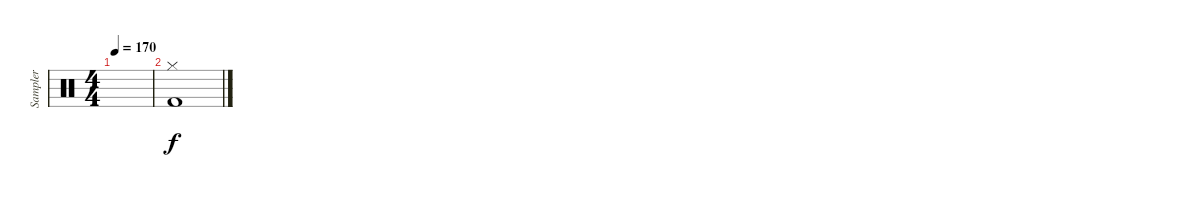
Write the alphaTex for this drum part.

\track ("Sampler" "Sampler") {instrument percussion}
\staff {score}
\articulation defaults
\ts (4 4)
\tempo 170
\clef neutral
\ks c
|
("Hi-Hat (closed)" "Kick (hit) 2").1
